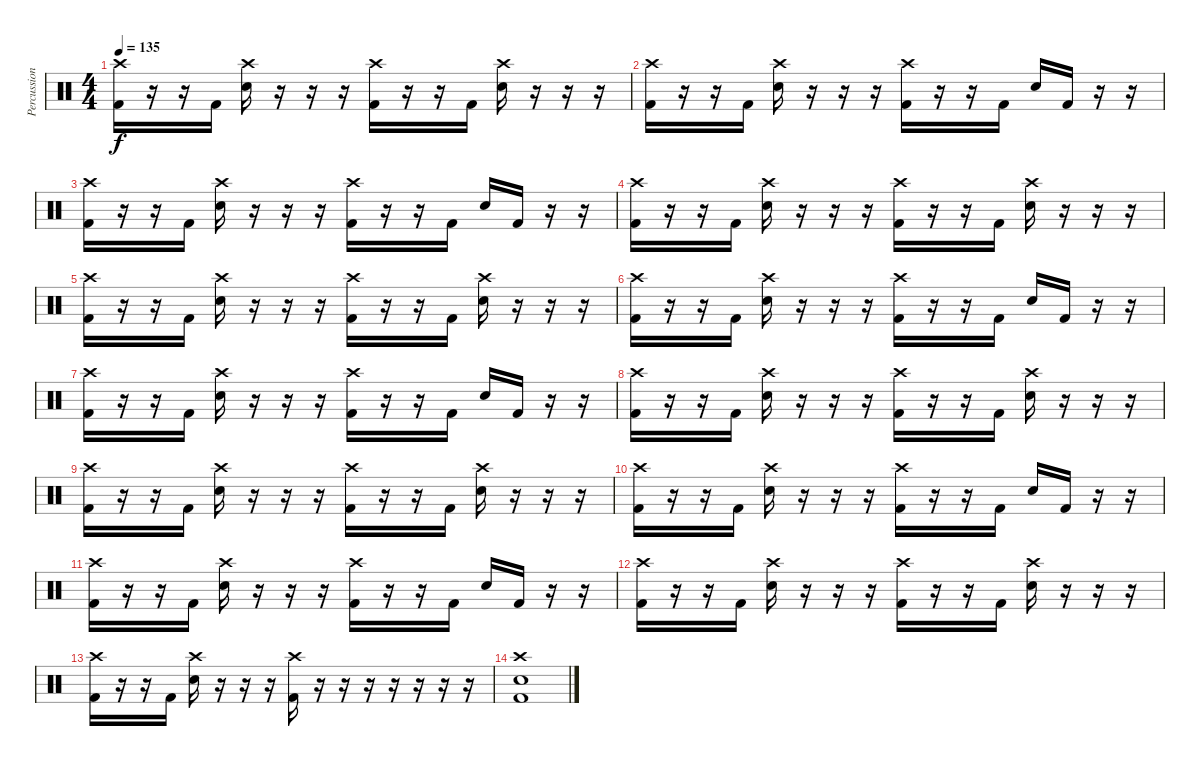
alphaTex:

\track ("Percussions" "Percussion") {instrument percussion}
\staff {score}
\articulation defaults
\ts (4 4)
\tempo 135
\clef neutral
\ks c
("Crash high (hit)" "Kick (hit) 2").16{dy f} r.16 r.16 "Kick (hit) 2".16 ("Crash high (hit)" "Electric Snare (hit)").16 r.16 r.16 r.16 ("Crash high (hit)" "Kick (hit) 2").16 r.16 r.16 "Kick (hit) 2".16 ("Crash high (hit)" "Electric Snare (hit)").16 r.16 r.16 r.16 |
("Crash high (hit)" "Kick (hit) 2").16 r.16 r.16 "Kick (hit) 2".16 ("Crash high (hit)" "Electric Snare (hit)").16 r.16 r.16 r.16 ("Crash high (hit)" "Kick (hit) 2").16 r.16 r.16 "Kick (hit) 2".16 "Electric Snare (hit)".16 "Kick (hit) 2".16 r.16 r.16 |
("Crash high (hit)" "Kick (hit) 2").16 r.16 r.16 "Kick (hit) 2".16 ("Crash high (hit)" "Electric Snare (hit)").16 r.16 r.16 r.16 ("Crash high (hit)" "Kick (hit) 2").16 r.16 r.16 "Kick (hit) 2".16 "Electric Snare (hit)".16 "Kick (hit) 2".16 r.16 r.16 |
("Crash high (hit)" "Kick (hit) 2").16 r.16 r.16 "Kick (hit) 2".16 ("Crash high (hit)" "Electric Snare (hit)").16 r.16 r.16 r.16 ("Crash high (hit)" "Kick (hit) 2").16 r.16 r.16 "Kick (hit) 2".16 ("Crash high (hit)" "Electric Snare (hit)").16 r.16 r.16 r.16 |
("Crash high (hit)" "Kick (hit) 2").16 r.16 r.16 "Kick (hit) 2".16 ("Crash high (hit)" "Electric Snare (hit)").16 r.16 r.16 r.16 ("Crash high (hit)" "Kick (hit) 2").16 r.16 r.16 "Kick (hit) 2".16 ("Crash high (hit)" "Electric Snare (hit)").16 r.16 r.16 r.16 |
("Crash high (hit)" "Kick (hit) 2").16 r.16 r.16 "Kick (hit) 2".16 ("Crash high (hit)" "Electric Snare (hit)").16 r.16 r.16 r.16 ("Crash high (hit)" "Kick (hit) 2").16 r.16 r.16 "Kick (hit) 2".16 "Electric Snare (hit)".16 "Kick (hit) 2".16 r.16 r.16 |
("Crash high (hit)" "Kick (hit) 2").16 r.16 r.16 "Kick (hit) 2".16 ("Crash high (hit)" "Electric Snare (hit)").16 r.16 r.16 r.16 ("Crash high (hit)" "Kick (hit) 2").16 r.16 r.16 "Kick (hit) 2".16 "Electric Snare (hit)".16 "Kick (hit) 2".16 r.16 r.16 |
("Crash high (hit)" "Kick (hit) 2").16 r.16 r.16 "Kick (hit) 2".16 ("Crash high (hit)" "Electric Snare (hit)").16 r.16 r.16 r.16 ("Crash high (hit)" "Kick (hit) 2").16 r.16 r.16 "Kick (hit) 2".16 ("Crash high (hit)" "Electric Snare (hit)").16 r.16 r.16 r.16 |
("Crash high (hit)" "Kick (hit) 2").16 r.16 r.16 "Kick (hit) 2".16 ("Crash high (hit)" "Electric Snare (hit)").16 r.16 r.16 r.16 ("Crash high (hit)" "Kick (hit) 2").16 r.16 r.16 "Kick (hit) 2".16 ("Crash high (hit)" "Electric Snare (hit)").16 r.16 r.16 r.16 |
("Crash high (hit)" "Kick (hit) 2").16 r.16 r.16 "Kick (hit) 2".16 ("Crash high (hit)" "Electric Snare (hit)").16 r.16 r.16 r.16 ("Crash high (hit)" "Kick (hit) 2").16 r.16 r.16 "Kick (hit) 2".16 "Electric Snare (hit)".16 "Kick (hit) 2".16 r.16 r.16 |
("Crash high (hit)" "Kick (hit) 2").16 r.16 r.16 "Kick (hit) 2".16 ("Crash high (hit)" "Electric Snare (hit)").16 r.16 r.16 r.16 ("Crash high (hit)" "Kick (hit) 2").16 r.16 r.16 "Kick (hit) 2".16 "Electric Snare (hit)".16 "Kick (hit) 2".16 r.16 r.16 |
("Crash high (hit)" "Kick (hit) 2").16 r.16 r.16 "Kick (hit) 2".16 ("Crash high (hit)" "Electric Snare (hit)").16 r.16 r.16 r.16 ("Crash high (hit)" "Kick (hit) 2").16 r.16 r.16 "Kick (hit) 2".16 ("Crash high (hit)" "Electric Snare (hit)").16 r.16 r.16 r.16 |
("Crash high (hit)" "Kick (hit) 2").16 r.16 r.16 "Kick (hit) 2".16 ("Crash high (hit)" "Electric Snare (hit)").16 r.16 r.16 r.16 ("Crash high (hit)" "Kick (hit) 2").16 r.16 r.16 r.16 r.16 r.16 r.16 r.16 |
("Crash high (hit)" "Electric Snare (hit)" "Kick (hit) 2").1
